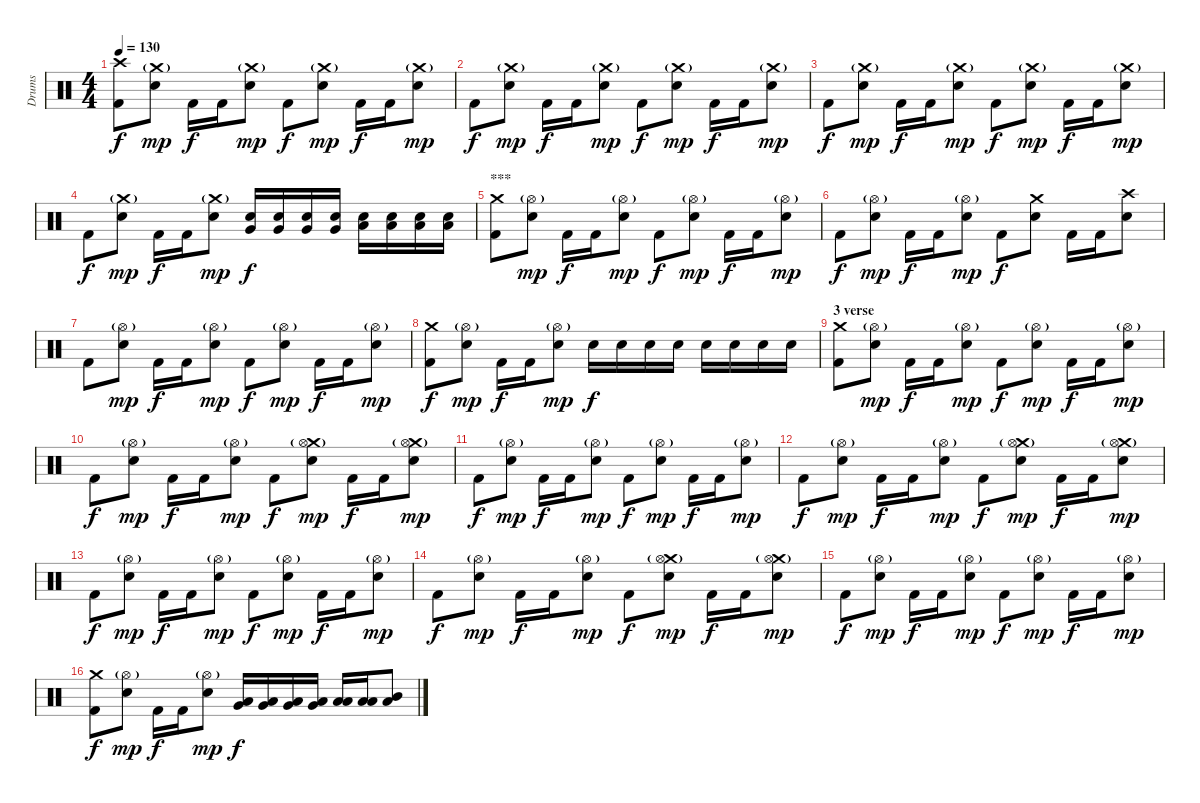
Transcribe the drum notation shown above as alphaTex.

\track ("Drums" "Drums") {instrument percussion}
\staff {score}
\articulation defaults
\ts (4 4)
\tempo 130
\clef neutral
\ks c
("Crash high (hit)" "Kick (hit) 2").8{dy f} ("Crash medium (hit)"{g} "Electric Snare (hit)").8{dy mp} "Kick (hit) 2".16{dy f} "Kick (hit) 2".16 ("Crash medium (hit)"{g} "Electric Snare (hit)").8{dy mp} "Kick (hit) 2".8{dy f} ("Crash medium (hit)"{g} "Electric Snare (hit)").8{dy mp} "Kick (hit) 2".16{dy f} "Kick (hit) 2".16 ("Crash medium (hit)"{g} "Electric Snare (hit)").8{dy mp} |
"Kick (hit) 2".8{dy f} ("Crash medium (hit)"{g} "Electric Snare (hit)").8{dy mp} "Kick (hit) 2".16{dy f} "Kick (hit) 2".16 ("Crash medium (hit)"{g} "Electric Snare (hit)").8{dy mp} "Kick (hit) 2".8{dy f} ("Crash medium (hit)"{g} "Electric Snare (hit)").8{dy mp} "Kick (hit) 2".16{dy f} "Kick (hit) 2".16 ("Crash medium (hit)"{g} "Electric Snare (hit)").8{dy mp} |
"Kick (hit) 2".8{dy f} ("Crash medium (hit)"{g} "Electric Snare (hit)").8{dy mp} "Kick (hit) 2".16{dy f} "Kick (hit) 2".16 ("Crash medium (hit)"{g} "Electric Snare (hit)").8{dy mp} "Kick (hit) 2".8{dy f} ("Crash medium (hit)"{g} "Electric Snare (hit)").8{dy mp} "Kick (hit) 2".16{dy f} "Kick (hit) 2".16 ("Crash medium (hit)"{g} "Electric Snare (hit)").8{dy mp} |
"Kick (hit) 2".8{dy f} ("Crash medium (hit)"{g} "Electric Snare (hit)").8{dy mp} "Kick (hit) 2".16{dy f} "Kick (hit) 2".16 ("Crash medium (hit)"{g} "Electric Snare (hit)").8{dy mp} ("Very Low Tom (hit)" "Electric Snare (hit)").16{dy f} ("Very Low Tom (hit)" "Electric Snare (hit)").16 ("Very Low Tom (hit)" "Electric Snare (hit)").16 ("Very Low Tom (hit)" "Electric Snare (hit)").16 ("Low Tom (hit)" "Electric Snare (hit)").16 ("Low Tom (hit)" "Electric Snare (hit)").16 ("Low Tom (hit)" "Electric Snare (hit)").16 ("Low Tom (hit)" "Electric Snare (hit)").16 |
\section ("" "***")
("Crash medium (hit)" "Kick (hit) 2").8 ("Hi-Hat (open)"{g} "Electric Snare (hit)").8{dy mp} "Kick (hit) 2".16{dy f} "Kick (hit) 2".16 ("Hi-Hat (open)"{g} "Electric Snare (hit)").8{dy mp} "Kick (hit) 2".8{dy f} ("Hi-Hat (open)"{g} "Electric Snare (hit)").8{dy mp} "Kick (hit) 2".16{dy f} "Kick (hit) 2".16 ("Hi-Hat (open)"{g} "Electric Snare (hit)").8{dy mp} |
"Kick (hit) 2".8{dy f} ("Hi-Hat (open)"{g} "Electric Snare (hit)").8{dy mp} "Kick (hit) 2".16{dy f} "Kick (hit) 2".16 ("Hi-Hat (open)"{g} "Electric Snare (hit)").8{dy mp} "Kick (hit) 2".8{dy f} ("Crash medium (hit)" "Electric Snare (hit)").8 "Kick (hit) 2".16 "Kick (hit) 2".16 ("Crash high (hit)" "Electric Snare (hit)").8 |
"Kick (hit) 2".8 ("Hi-Hat (open)"{g} "Electric Snare (hit)").8{dy mp} "Kick (hit) 2".16{dy f} "Kick (hit) 2".16 ("Hi-Hat (open)"{g} "Electric Snare (hit)").8{dy mp} "Kick (hit) 2".8{dy f} ("Hi-Hat (open)"{g} "Electric Snare (hit)").8{dy mp} "Kick (hit) 2".16{dy f} "Kick (hit) 2".16 ("Hi-Hat (open)"{g} "Electric Snare (hit)").8{dy mp} |
("Crash medium (hit)" "Kick (hit) 2").8{dy f} ("Hi-Hat (open)"{g} "Electric Snare (hit)").8{dy mp} "Kick (hit) 2".16{dy f} "Kick (hit) 2".16 ("Hi-Hat (open)"{g} "Electric Snare (hit)").8{dy mp} "Electric Snare (hit)".16{dy f} "Electric Snare (hit)".16 "Electric Snare (hit)".16 "Electric Snare (hit)".16 "Electric Snare (hit)".16 "Electric Snare (hit)".16 "Electric Snare (hit)".16 "Electric Snare (hit)".16 |
\section ("" "3 verse")
("Crash medium (hit)" "Kick (hit) 2").8 ("Hi-Hat (open)"{g} "Electric Snare (hit)").8{dy mp} "Kick (hit) 2".16{dy f} "Kick (hit) 2".16 ("Hi-Hat (open)"{g} "Electric Snare (hit)").8{dy mp} "Kick (hit) 2".8{dy f} ("Hi-Hat (open)"{g} "Electric Snare (hit)").8{dy mp} "Kick (hit) 2".16{dy f} "Kick (hit) 2".16 ("Hi-Hat (open)"{g} "Electric Snare (hit)").8{dy mp} |
"Kick (hit) 2".8{dy f} ("Hi-Hat (open)"{g} "Electric Snare (hit)").8{dy mp} "Kick (hit) 2".16{dy f} "Kick (hit) 2".16 ("Hi-Hat (open)"{g} "Electric Snare (hit)").8{dy mp} "Kick (hit) 2".8{dy f} ("Crash medium (hit)"{g} "Hi-Hat (open)"{g} "Electric Snare (hit)").8{dy mp} "Kick (hit) 2".16{dy f} "Kick (hit) 2".16 ("Crash medium (hit)"{g} "Hi-Hat (open)"{g} "Electric Snare (hit)").8{dy mp} |
"Kick (hit) 2".8{dy f} ("Hi-Hat (open)"{g} "Electric Snare (hit)").8{dy mp} "Kick (hit) 2".16{dy f} "Kick (hit) 2".16 ("Hi-Hat (open)"{g} "Electric Snare (hit)").8{dy mp} "Kick (hit) 2".8{dy f} ("Hi-Hat (open)"{g} "Electric Snare (hit)").8{dy mp} "Kick (hit) 2".16{dy f} "Kick (hit) 2".16 ("Hi-Hat (open)"{g} "Electric Snare (hit)").8{dy mp} |
"Kick (hit) 2".8{dy f} ("Hi-Hat (open)"{g} "Electric Snare (hit)").8{dy mp} "Kick (hit) 2".16{dy f} "Kick (hit) 2".16 ("Hi-Hat (open)"{g} "Electric Snare (hit)").8{dy mp} "Kick (hit) 2".8{dy f} ("Crash medium (hit)"{g} "Hi-Hat (open)"{g} "Electric Snare (hit)").8{dy mp} "Kick (hit) 2".16{dy f} "Kick (hit) 2".16 ("Crash medium (hit)"{g} "Hi-Hat (open)"{g} "Electric Snare (hit)").8{dy mp} |
"Kick (hit) 2".8{dy f} ("Hi-Hat (open)"{g} "Electric Snare (hit)").8{dy mp} "Kick (hit) 2".16{dy f} "Kick (hit) 2".16 ("Hi-Hat (open)"{g} "Electric Snare (hit)").8{dy mp} "Kick (hit) 2".8{dy f} ("Hi-Hat (open)"{g} "Electric Snare (hit)").8{dy mp} "Kick (hit) 2".16{dy f} "Kick (hit) 2".16 ("Hi-Hat (open)"{g} "Electric Snare (hit)").8{dy mp} |
"Kick (hit) 2".8{dy f} ("Hi-Hat (open)"{g} "Electric Snare (hit)").8{dy mp} "Kick (hit) 2".16{dy f} "Kick (hit) 2".16 ("Hi-Hat (open)"{g} "Electric Snare (hit)").8{dy mp} "Kick (hit) 2".8{dy f} ("Crash medium (hit)"{g} "Hi-Hat (open)"{g} "Electric Snare (hit)").8{dy mp} "Kick (hit) 2".16{dy f} "Kick (hit) 2".16 ("Crash medium (hit)"{g} "Hi-Hat (open)"{g} "Electric Snare (hit)").8{dy mp} |
"Kick (hit) 2".8{dy f} ("Hi-Hat (open)"{g} "Electric Snare (hit)").8{dy mp} "Kick (hit) 2".16{dy f} "Kick (hit) 2".16 ("Hi-Hat (open)"{g} "Electric Snare (hit)").8{dy mp} "Kick (hit) 2".8{dy f} ("Hi-Hat (open)"{g} "Electric Snare (hit)").8{dy mp} "Kick (hit) 2".16{dy f} "Kick (hit) 2".16 ("Hi-Hat (open)"{g} "Electric Snare (hit)").8{dy mp} |
("Crash medium (hit)" "Kick (hit) 2").8{dy f} ("Hi-Hat (open)"{g} "Electric Snare (hit)").8{dy mp} "Kick (hit) 2".16{dy f} "Kick (hit) 2".16 ("Hi-Hat (open)"{g} "Electric Snare (hit)").8{dy mp} ("Very Low Tom (hit)" "Low Floor Tom (hit)").16{dy f} ("Very Low Tom (hit)" "Low Floor Tom (hit)").16 ("Very Low Tom (hit)" "Low Floor Tom (hit)").16 ("Very Low Tom (hit)" "Low Floor Tom (hit)").16 ("Low Tom (hit)" "Low Floor Tom (hit)").16 ("Low Tom (hit)" "Low Floor Tom (hit)").16 ("Mid Tom (hit)" "Low Floor Tom (hit)").8
